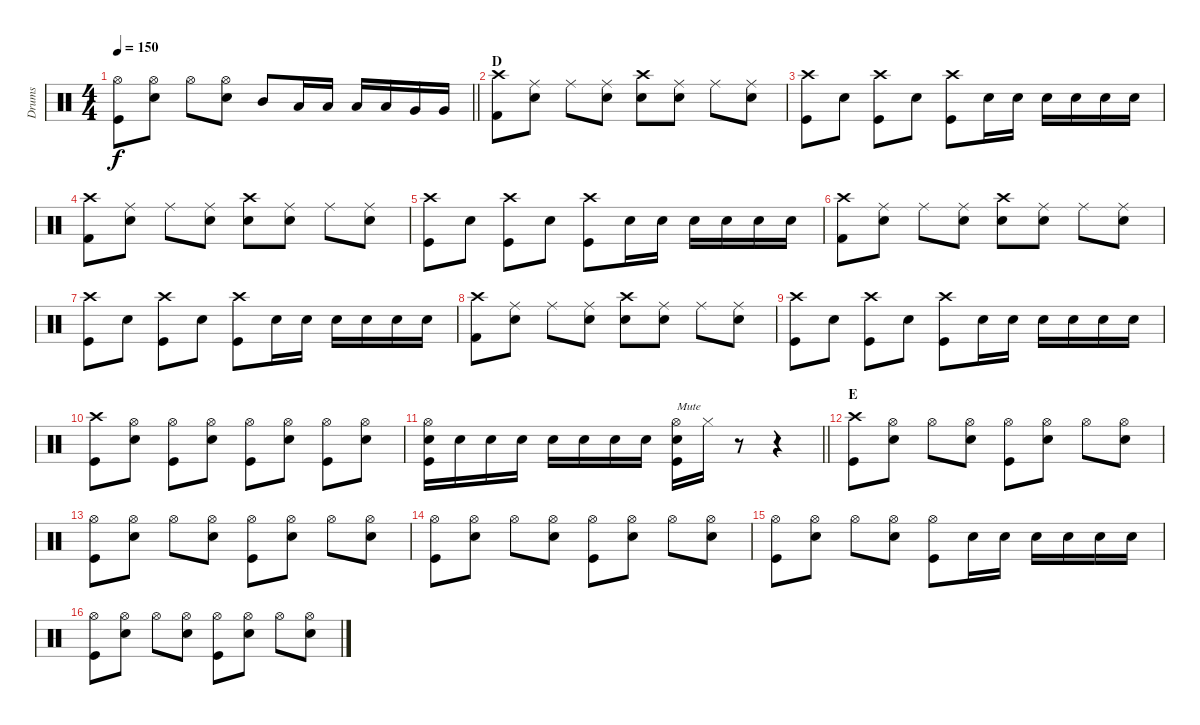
\track ("Drums" "Drums") {instrument percussion}
\staff {score}
\articulation defaults
\ts (4 4)
\tempo 150
\clef neutral
\barLineRight lightlight
\ks c
("Hi-Hat (open)" "Kick (hit)").8{dy f} ("Hi-Hat (open)" "Snare (hit) 2").8 "Hi-Hat (open)".8 ("Hi-Hat (open)" "Snare (hit) 2").8 "Mid Tom (hit)".8 "Low Tom (hit)".16 "Low Tom (hit)".16 "Low Tom (hit)".16 "Low Tom (hit)".16 "Very Low Tom (hit)".16 "Very Low Tom (hit)".16 |
\section ("" "D")
("Crash high (hit)" "Kick (hit) 2").8 ("Ride (middle)" "Snare (hit) 2").8 "Ride (middle)".8 ("Ride (middle)" "Snare (hit) 2").8 ("Crash high (hit)" "Snare (hit) 2").8 ("Ride (middle)" "Snare (hit) 2").8 "Ride (middle)".8 ("Ride (middle)" "Snare (hit) 2").8 |
("Crash high (hit)" "Kick (hit)").8 "Snare (hit) 2".8 ("Crash high (hit)" "Kick (hit)").8 "Snare (hit) 2".8 ("Crash high (hit)" "Kick (hit)").8 "Snare (hit) 2".16 "Snare (hit) 2".16 "Snare (hit) 2".16 "Snare (hit) 2".16 "Snare (hit) 2".16 "Snare (hit) 2".16 |
("Crash high (hit)" "Kick (hit) 2").8 ("Ride (middle)" "Snare (hit) 2").8 "Ride (middle)".8 ("Ride (middle)" "Snare (hit) 2").8 ("Crash high (hit)" "Snare (hit) 2").8 ("Ride (middle)" "Snare (hit) 2").8 "Ride (middle)".8 ("Ride (middle)" "Snare (hit) 2").8 |
("Crash high (hit)" "Kick (hit)").8 "Snare (hit) 2".8 ("Crash high (hit)" "Kick (hit)").8 "Snare (hit) 2".8 ("Crash high (hit)" "Kick (hit)").8 "Snare (hit) 2".16 "Snare (hit) 2".16 "Snare (hit) 2".16 "Snare (hit) 2".16 "Snare (hit) 2".16 "Snare (hit) 2".16 |
("Crash high (hit)" "Kick (hit) 2").8 ("Ride (middle)" "Snare (hit) 2").8 "Ride (middle)".8 ("Ride (middle)" "Snare (hit) 2").8 ("Crash high (hit)" "Snare (hit) 2").8 ("Ride (middle)" "Snare (hit) 2").8 "Ride (middle)".8 ("Ride (middle)" "Snare (hit) 2").8 |
("Crash high (hit)" "Kick (hit)").8 "Snare (hit) 2".8 ("Crash high (hit)" "Kick (hit)").8 "Snare (hit) 2".8 ("Crash high (hit)" "Kick (hit)").8 "Snare (hit) 2".16 "Snare (hit) 2".16 "Snare (hit) 2".16 "Snare (hit) 2".16 "Snare (hit) 2".16 "Snare (hit) 2".16 |
("Crash high (hit)" "Kick (hit) 2").8 ("Ride (middle)" "Snare (hit) 2").8 "Ride (middle)".8 ("Ride (middle)" "Snare (hit) 2").8 ("Crash high (hit)" "Snare (hit) 2").8 ("Ride (middle)" "Snare (hit) 2").8 "Ride (middle)".8 ("Ride (middle)" "Snare (hit) 2").8 |
("Crash high (hit)" "Kick (hit)").8 "Snare (hit) 2".8 ("Crash high (hit)" "Kick (hit)").8 "Snare (hit) 2".8 ("Crash high (hit)" "Kick (hit)").8 "Snare (hit) 2".16 "Snare (hit) 2".16 "Snare (hit) 2".16 "Snare (hit) 2".16 "Snare (hit) 2".16 "Snare (hit) 2".16 |
("Crash high (hit)" "Kick (hit)").8 ("Hi-Hat (open)" "Snare (hit) 2").8 ("Hi-Hat (open)" "Kick (hit)").8 ("Hi-Hat (open)" "Snare (hit) 2").8 ("Hi-Hat (open)" "Kick (hit)").8 ("Hi-Hat (open)" "Snare (hit) 2").8 ("Hi-Hat (open)" "Kick (hit)").8 ("Hi-Hat (open)" "Snare (hit) 2").8 |
\barLineRight lightlight
("Hi-Hat (open)" "Snare (hit) 2" "Kick (hit)").16 "Snare (hit) 2".16 "Snare (hit) 2".16 "Snare (hit) 2".16 "Snare (hit) 2".16 "Snare (hit) 2".16 "Snare (hit) 2".16 "Snare (hit) 2".16 ("Hi-Hat (open)" "Snare (hit) 2" "Kick (hit)").16{txt "Mute"} "Hi-Hat (closed)".16 r.8 r.4 |
\section ("" "E")
("Crash high (hit)" "Kick (hit)").8 ("Hi-Hat (open)" "Snare (hit) 2").8 "Hi-Hat (open)".8 ("Hi-Hat (open)" "Snare (hit) 2").8 ("Hi-Hat (open)" "Kick (hit)").8 ("Hi-Hat (open)" "Snare (hit) 2").8 "Hi-Hat (open)".8 ("Hi-Hat (open)" "Snare (hit) 2").8 |
("Hi-Hat (open)" "Kick (hit)").8 ("Hi-Hat (open)" "Snare (hit) 2").8 "Hi-Hat (open)".8 ("Hi-Hat (open)" "Snare (hit) 2").8 ("Hi-Hat (open)" "Kick (hit)").8 ("Hi-Hat (open)" "Snare (hit) 2").8 "Hi-Hat (open)".8 ("Hi-Hat (open)" "Snare (hit) 2").8 |
("Hi-Hat (open)" "Kick (hit)").8 ("Hi-Hat (open)" "Snare (hit) 2").8 "Hi-Hat (open)".8 ("Hi-Hat (open)" "Snare (hit) 2").8 ("Hi-Hat (open)" "Kick (hit)").8 ("Hi-Hat (open)" "Snare (hit) 2").8 "Hi-Hat (open)".8 ("Hi-Hat (open)" "Snare (hit) 2").8 |
("Hi-Hat (open)" "Kick (hit)").8 ("Hi-Hat (open)" "Snare (hit) 2").8 "Hi-Hat (open)".8 ("Hi-Hat (open)" "Snare (hit) 2").8 ("Hi-Hat (open)" "Kick (hit)").8 "Snare (hit) 2".16 "Snare (hit) 2".16 "Snare (hit) 2".16 "Snare (hit) 2".16 "Snare (hit) 2".16 "Snare (hit) 2".16 |
("Hi-Hat (open)" "Kick (hit)").8 ("Hi-Hat (open)" "Snare (hit) 2").8 "Hi-Hat (open)".8 ("Hi-Hat (open)" "Snare (hit) 2").8 ("Hi-Hat (open)" "Kick (hit)").8 ("Hi-Hat (open)" "Snare (hit) 2").8 "Hi-Hat (open)".8 ("Hi-Hat (open)" "Snare (hit) 2").8
